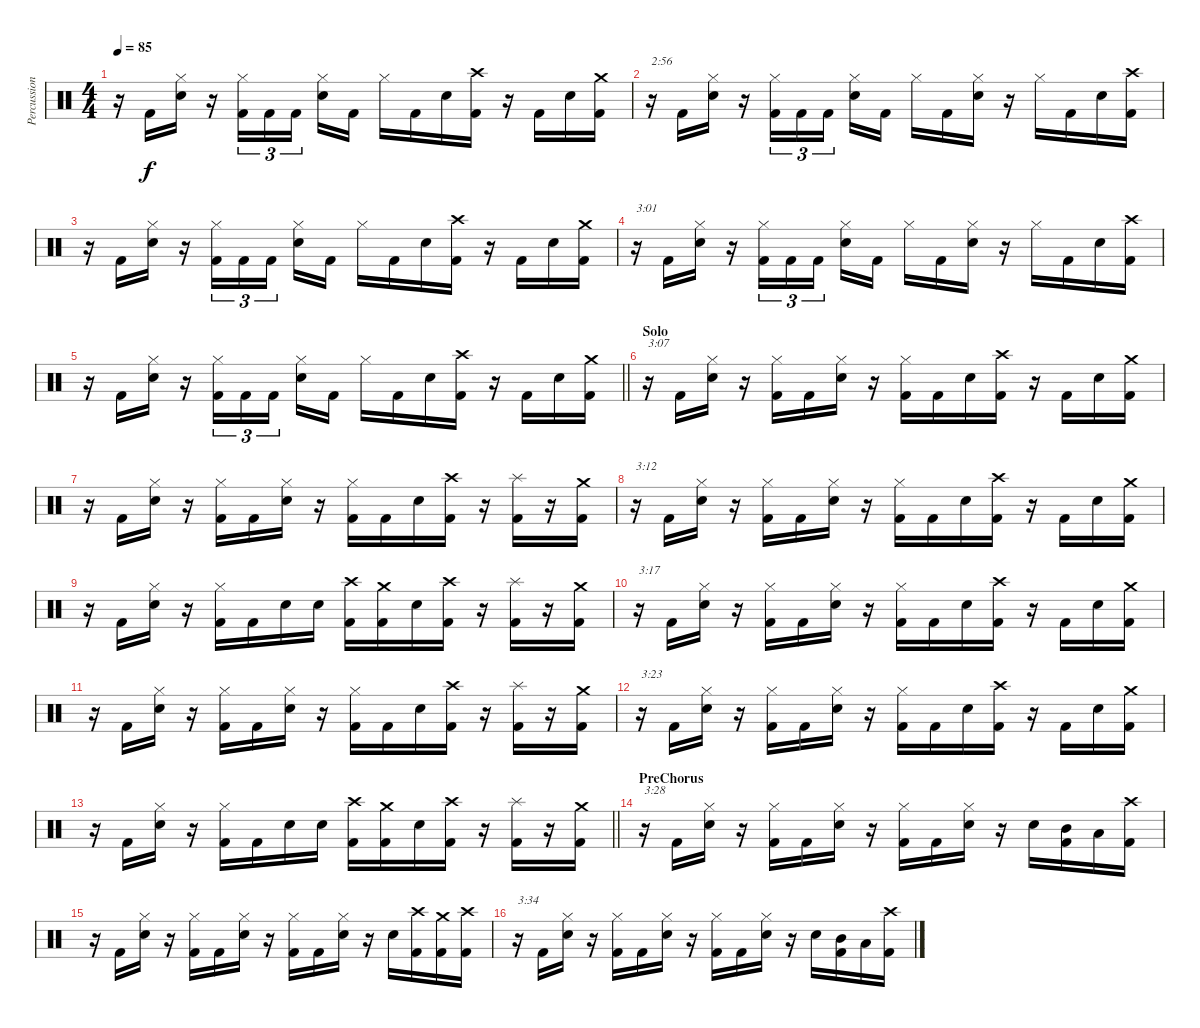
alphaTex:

\track ("Percussion" "Percussion") {instrument percussion}
\staff {score}
\articulation defaults
\ts (4 4)
\tempo 85
\clef neutral
\ks c
r.16{dy f} "Kick (hit) 2".16 ("Hi-Hat (closed)" "Snare (hit) 2").16 r.16 ("Hi-Hat (closed)" "Kick (hit) 2").16{tu (3 2)} "Kick (hit) 2".16{tu (3 2)} "Kick (hit) 2".16{tu (3 2)} ("Hi-Hat (closed)" "Snare (hit) 2").16 "Kick (hit) 2".16 "Hi-Hat (closed)".16 "Kick (hit) 2".16 "Snare (hit) 2".16 ("Crash high (hit)" "Kick (hit) 2").16 r.16 "Kick (hit) 2".16 "Snare (hit) 2".16 ("Crash medium (hit)" "Kick (hit) 2").16 |
r.16{txt "2:56"} "Kick (hit) 2".16 ("Hi-Hat (closed)" "Snare (hit) 2").16 r.16 ("Hi-Hat (closed)" "Kick (hit) 2").16{tu (3 2)} "Kick (hit) 2".16{tu (3 2)} "Kick (hit) 2".16{tu (3 2)} ("Hi-Hat (closed)" "Snare (hit) 2").16 "Kick (hit) 2".16 "Hi-Hat (closed)".16 "Kick (hit) 2".16 ("Hi-Hat (closed)" "Snare (hit) 2").16 r.16 "Hi-Hat (closed)".16 "Kick (hit) 2".16 "Snare (hit) 2".16 ("Crash high (hit)" "Kick (hit) 2").16 |
r.16 "Kick (hit) 2".16 ("Hi-Hat (closed)" "Snare (hit) 2").16 r.16 ("Hi-Hat (closed)" "Kick (hit) 2").16{tu (3 2)} "Kick (hit) 2".16{tu (3 2)} "Kick (hit) 2".16{tu (3 2)} ("Hi-Hat (closed)" "Snare (hit) 2").16 "Kick (hit) 2".16 "Hi-Hat (closed)".16 "Kick (hit) 2".16 "Snare (hit) 2".16 ("Crash high (hit)" "Kick (hit) 2").16 r.16 "Kick (hit) 2".16 "Snare (hit) 2".16 ("Crash medium (hit)" "Kick (hit) 2").16 |
r.16{txt "3:01"} "Kick (hit) 2".16 ("Hi-Hat (closed)" "Snare (hit) 2").16 r.16 ("Hi-Hat (closed)" "Kick (hit) 2").16{tu (3 2)} "Kick (hit) 2".16{tu (3 2)} "Kick (hit) 2".16{tu (3 2)} ("Hi-Hat (closed)" "Snare (hit) 2").16 "Kick (hit) 2".16 "Hi-Hat (closed)".16 "Kick (hit) 2".16 ("Hi-Hat (closed)" "Snare (hit) 2").16 r.16 "Hi-Hat (closed)".16 "Kick (hit) 2".16 "Snare (hit) 2".16 ("Crash high (hit)" "Kick (hit) 2").16 |
\barLineRight lightlight
r.16 "Kick (hit) 2".16 ("Hi-Hat (closed)" "Snare (hit) 2").16 r.16 ("Hi-Hat (closed)" "Kick (hit) 2").16{tu (3 2)} "Kick (hit) 2".16{tu (3 2)} "Kick (hit) 2".16{tu (3 2)} ("Hi-Hat (closed)" "Snare (hit) 2").16 "Kick (hit) 2".16 "Hi-Hat (closed)".16 "Kick (hit) 2".16 "Snare (hit) 2".16 ("Crash high (hit)" "Kick (hit) 2").16 r.16 "Kick (hit) 2".16 "Snare (hit) 2".16 ("Crash medium (hit)" "Kick (hit) 2").16 |
\section ("" "Solo")
r.16{txt "3:07"} "Kick (hit) 2".16 ("Hi-Hat (closed)" "Snare (hit) 2").16 r.16 ("Hi-Hat (closed)" "Kick (hit) 2").16 "Kick (hit) 2".16 ("Hi-Hat (closed)" "Snare (hit) 2").16 r.16 ("Hi-Hat (closed)" "Kick (hit) 2").16 "Kick (hit) 2".16 "Snare (hit) 2".16 ("Crash high (hit)" "Kick (hit) 2").16 r.16 "Kick (hit) 2".16 "Snare (hit) 2".16 ("Crash medium (hit)" "Kick (hit) 2").16 |
r.16 "Kick (hit) 2".16 ("Hi-Hat (closed)" "Snare (hit) 2").16 r.16 ("Hi-Hat (closed)" "Kick (hit) 2").16 "Kick (hit) 2".16 ("Hi-Hat (closed)" "Snare (hit) 2").16 r.16 ("Hi-Hat (closed)" "Kick (hit) 2").16 "Kick (hit) 2".16 "Snare (hit) 2".16 ("Crash high (hit)" "Kick (hit) 2").16 r.16 ("Splash (hit)" "Kick (hit) 2").16 r.16 ("Crash medium (hit)" "Kick (hit) 2").16 |
r.16{txt "3:12"} "Kick (hit) 2".16 ("Hi-Hat (closed)" "Snare (hit) 2").16 r.16 ("Hi-Hat (closed)" "Kick (hit) 2").16 "Kick (hit) 2".16 ("Hi-Hat (closed)" "Snare (hit) 2").16 r.16 ("Hi-Hat (closed)" "Kick (hit) 2").16 "Kick (hit) 2".16 "Snare (hit) 2".16 ("Crash high (hit)" "Kick (hit) 2").16 r.16 "Kick (hit) 2".16 "Snare (hit) 2".16 ("Crash medium (hit)" "Kick (hit) 2").16 |
r.16 "Kick (hit) 2".16 ("Hi-Hat (closed)" "Snare (hit) 2").16 r.16 ("Hi-Hat (closed)" "Kick (hit) 2").16 "Kick (hit) 2".16 "Snare (hit) 2".16 "Snare (hit) 2".16 ("Crash high (hit)" "Kick (hit) 2").16 ("Crash medium (hit)" "Kick (hit) 2").16 "Snare (hit) 2".16 ("Crash high (hit)" "Kick (hit) 2").16 r.16 ("Splash (hit)" "Kick (hit) 2").16 r.16 ("Crash medium (hit)" "Kick (hit) 2").16 |
r.16{txt "3:17"} "Kick (hit) 2".16 ("Hi-Hat (closed)" "Snare (hit) 2").16 r.16 ("Hi-Hat (closed)" "Kick (hit) 2").16 "Kick (hit) 2".16 ("Hi-Hat (closed)" "Snare (hit) 2").16 r.16 ("Hi-Hat (closed)" "Kick (hit) 2").16 "Kick (hit) 2".16 "Snare (hit) 2".16 ("Crash high (hit)" "Kick (hit) 2").16 r.16 "Kick (hit) 2".16 "Snare (hit) 2".16 ("Crash medium (hit)" "Kick (hit) 2").16 |
r.16 "Kick (hit) 2".16 ("Hi-Hat (closed)" "Snare (hit) 2").16 r.16 ("Hi-Hat (closed)" "Kick (hit) 2").16 "Kick (hit) 2".16 ("Hi-Hat (closed)" "Snare (hit) 2").16 r.16 ("Hi-Hat (closed)" "Kick (hit) 2").16 "Kick (hit) 2".16 "Snare (hit) 2".16 ("Crash high (hit)" "Kick (hit) 2").16 r.16 ("Splash (hit)" "Kick (hit) 2").16 r.16 ("Crash medium (hit)" "Kick (hit) 2").16 |
r.16{txt "3:23"} "Kick (hit) 2".16 ("Hi-Hat (closed)" "Snare (hit) 2").16 r.16 ("Hi-Hat (closed)" "Kick (hit) 2").16 "Kick (hit) 2".16 ("Hi-Hat (closed)" "Snare (hit) 2").16 r.16 ("Hi-Hat (closed)" "Kick (hit) 2").16 "Kick (hit) 2".16 "Snare (hit) 2".16 ("Crash high (hit)" "Kick (hit) 2").16 r.16 "Kick (hit) 2".16 "Snare (hit) 2".16 ("Crash medium (hit)" "Kick (hit) 2").16 |
\barLineRight lightlight
r.16 "Kick (hit) 2".16 ("Hi-Hat (closed)" "Snare (hit) 2").16 r.16 ("Hi-Hat (closed)" "Kick (hit) 2").16 "Kick (hit) 2".16 "Snare (hit) 2".16 "Snare (hit) 2".16 ("Crash high (hit)" "Kick (hit) 2").16 ("Crash medium (hit)" "Kick (hit) 2").16 "Snare (hit) 2".16 ("Crash high (hit)" "Kick (hit) 2").16 r.16 ("Splash (hit)" "Kick (hit) 2").16 r.16 ("Crash medium (hit)" "Kick (hit) 2").16 |
\section ("" "PreChorus")
r.16{txt "3:28"} "Kick (hit) 2".16 ("Hi-Hat (closed)" "Snare (hit) 2").16 r.16 ("Hi-Hat (closed)" "Kick (hit) 2").16 "Kick (hit) 2".16 ("Hi-Hat (closed)" "Snare (hit) 2").16 r.16 ("Hi-Hat (closed)" "Kick (hit) 2").16 "Kick (hit) 2".16 ("Hi-Hat (closed)" "Snare (hit) 2").16 r.16 "Snare (hit) 2".16 ("Mid Tom (hit)" "Kick (hit) 2").16 "Low Tom (hit)".16 ("Crash high (hit)" "Kick (hit) 2").16 |
r.16 "Kick (hit) 2".16 ("Hi-Hat (closed)" "Snare (hit) 2").16 r.16 ("Hi-Hat (closed)" "Kick (hit) 2").16 "Kick (hit) 2".16 ("Hi-Hat (closed)" "Snare (hit) 2").16 r.16 ("Hi-Hat (closed)" "Kick (hit) 2").16 "Kick (hit) 2".16 ("Hi-Hat (closed)" "Snare (hit) 2").16 r.16 "Snare (hit) 2".16 ("Crash high (hit)" "Kick (hit) 2").16 ("Crash medium (hit)" "Kick (hit) 2").16 ("Crash high (hit)" "Kick (hit) 2").16 |
r.16{txt "3:34"} "Kick (hit) 2".16 ("Hi-Hat (closed)" "Snare (hit) 2").16 r.16 ("Hi-Hat (closed)" "Kick (hit) 2").16 "Kick (hit) 2".16 ("Hi-Hat (closed)" "Snare (hit) 2").16 r.16 ("Hi-Hat (closed)" "Kick (hit) 2").16 "Kick (hit) 2".16 ("Hi-Hat (closed)" "Snare (hit) 2").16 r.16 "Snare (hit) 2".16 ("Mid Tom (hit)" "Kick (hit) 2").16 "Low Tom (hit)".16 ("Crash high (hit)" "Kick (hit) 2").16
